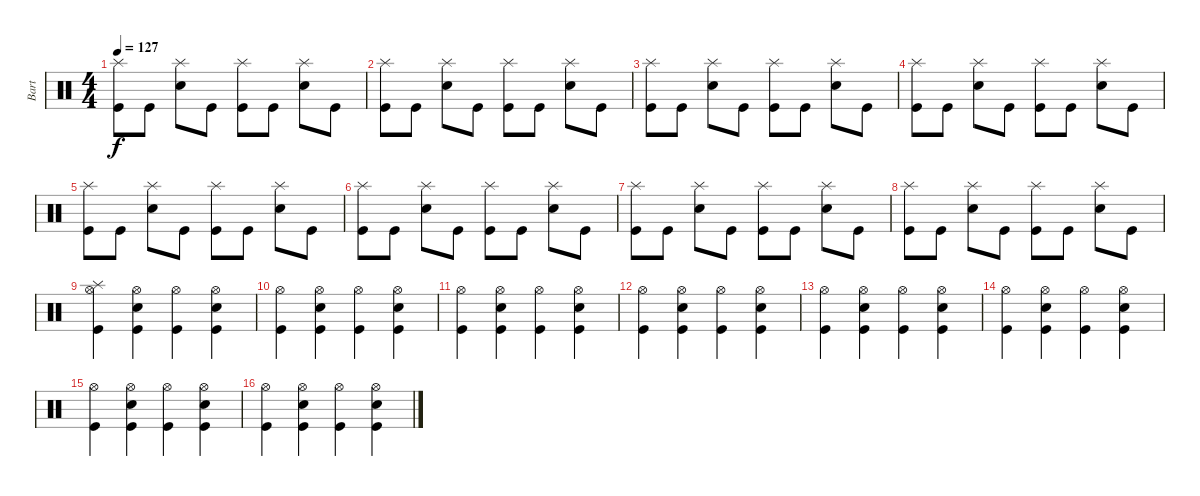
\track ("Bart" "Bart") {instrument percussion}
\staff {score}
\articulation defaults
\ts (4 4)
\tempo 127
\clef neutral
\ks c
("Kick (hit)" "Splash (hit)").8{dy f} "Kick (hit)".8 ("Electric Snare (hit)" "Splash (hit)").8 "Kick (hit)".8 ("Kick (hit)" "Splash (hit)").8 "Kick (hit)".8 ("Electric Snare (hit)" "Splash (hit)").8 "Kick (hit)".8 |
("Kick (hit)" "Splash (hit)").8 "Kick (hit)".8 ("Electric Snare (hit)" "Splash (hit)").8 "Kick (hit)".8 ("Kick (hit)" "Splash (hit)").8 "Kick (hit)".8 ("Electric Snare (hit)" "Splash (hit)").8 "Kick (hit)".8 |
("Kick (hit)" "Splash (hit)").8 "Kick (hit)".8 ("Electric Snare (hit)" "Splash (hit)").8 "Kick (hit)".8 ("Kick (hit)" "Splash (hit)").8 "Kick (hit)".8 ("Electric Snare (hit)" "Splash (hit)").8 "Kick (hit)".8 |
("Kick (hit)" "Splash (hit)").8 "Kick (hit)".8 ("Electric Snare (hit)" "Splash (hit)").8 "Kick (hit)".8 ("Kick (hit)" "Splash (hit)").8 "Kick (hit)".8 ("Electric Snare (hit)" "Splash (hit)").8 "Kick (hit)".8 |
("Kick (hit)" "Splash (hit)").8 "Kick (hit)".8 ("Electric Snare (hit)" "Splash (hit)").8 "Kick (hit)".8 ("Kick (hit)" "Splash (hit)").8 "Kick (hit)".8 ("Electric Snare (hit)" "Splash (hit)").8 "Kick (hit)".8 |
("Kick (hit)" "Splash (hit)").8 "Kick (hit)".8 ("Electric Snare (hit)" "Splash (hit)").8 "Kick (hit)".8 ("Kick (hit)" "Splash (hit)").8 "Kick (hit)".8 ("Electric Snare (hit)" "Splash (hit)").8 "Kick (hit)".8 |
("Kick (hit)" "Splash (hit)").8 "Kick (hit)".8 ("Electric Snare (hit)" "Splash (hit)").8 "Kick (hit)".8 ("Kick (hit)" "Splash (hit)").8 "Kick (hit)".8 ("Electric Snare (hit)" "Splash (hit)").8 "Kick (hit)".8 |
("Kick (hit)" "Splash (hit)").8 "Kick (hit)".8 ("Electric Snare (hit)" "Splash (hit)").8 "Kick (hit)".8 ("Kick (hit)" "Splash (hit)").8 "Kick (hit)".8 ("Electric Snare (hit)" "Splash (hit)").8 "Kick (hit)".8 |
("Kick (hit)" "Hi-Hat (open)" "Splash (hit)").4 ("Kick (hit)" "Electric Snare (hit)" "Hi-Hat (open)").4 ("Kick (hit)" "Hi-Hat (open)").4 ("Kick (hit)" "Electric Snare (hit)" "Hi-Hat (open)").4 |
("Kick (hit)" "Hi-Hat (open)").4 ("Kick (hit)" "Electric Snare (hit)" "Hi-Hat (open)").4 ("Kick (hit)" "Hi-Hat (open)").4 ("Kick (hit)" "Electric Snare (hit)" "Hi-Hat (open)").4 |
("Kick (hit)" "Hi-Hat (open)").4 ("Kick (hit)" "Electric Snare (hit)" "Hi-Hat (open)").4 ("Kick (hit)" "Hi-Hat (open)").4 ("Kick (hit)" "Electric Snare (hit)" "Hi-Hat (open)").4 |
("Kick (hit)" "Hi-Hat (open)").4 ("Kick (hit)" "Electric Snare (hit)" "Hi-Hat (open)").4 ("Kick (hit)" "Hi-Hat (open)").4 ("Kick (hit)" "Electric Snare (hit)" "Hi-Hat (open)").4 |
("Kick (hit)" "Hi-Hat (open)").4 ("Kick (hit)" "Electric Snare (hit)" "Hi-Hat (open)").4 ("Kick (hit)" "Hi-Hat (open)").4 ("Kick (hit)" "Electric Snare (hit)" "Hi-Hat (open)").4 |
("Kick (hit)" "Hi-Hat (open)").4 ("Kick (hit)" "Electric Snare (hit)" "Hi-Hat (open)").4 ("Kick (hit)" "Hi-Hat (open)").4 ("Kick (hit)" "Electric Snare (hit)" "Hi-Hat (open)").4 |
("Kick (hit)" "Hi-Hat (open)").4 ("Kick (hit)" "Electric Snare (hit)" "Hi-Hat (open)").4 ("Kick (hit)" "Hi-Hat (open)").4 ("Kick (hit)" "Electric Snare (hit)" "Hi-Hat (open)").4 |
("Kick (hit)" "Hi-Hat (open)").4 ("Kick (hit)" "Electric Snare (hit)" "Hi-Hat (open)").4 ("Kick (hit)" "Hi-Hat (open)").4 ("Kick (hit)" "Electric Snare (hit)" "Hi-Hat (open)").4
